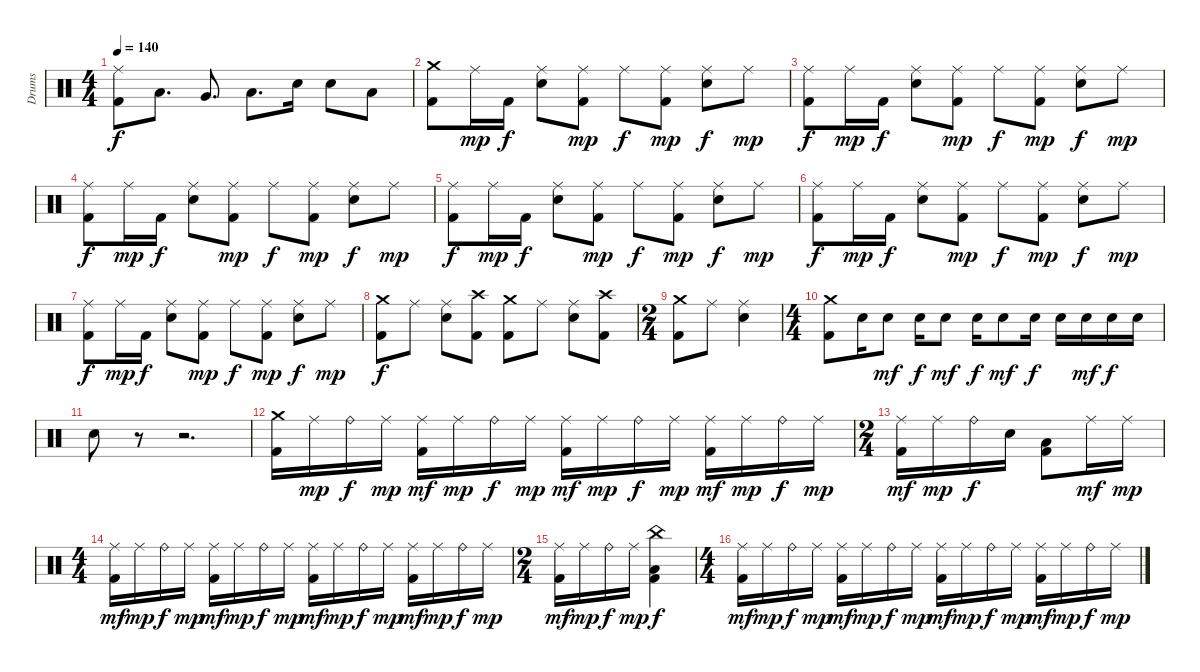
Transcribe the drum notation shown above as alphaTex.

\track ("Drums" "Drums") {instrument percussion}
\staff {score}
\articulation defaults
\ts (4 4)
\tempo 140
\clef neutral
\ks c
("Kick (hit) 2" "Ride (middle)").8{dy f} "Low Tom (hit)".8{d} "Very Low Tom (hit)".8{d} "Low Floor Tom (hit)".8{d} "Electric Snare (hit)".16 "Electric Snare (hit)".8 "Low Tom (hit)".8 |
("Kick (hit) 2" "Crash medium (hit)").8 "Ride (middle)".16{dy mp} "Kick (hit) 2".16{dy f} ("Ride (middle)" "Electric Snare (hit)").8 ("Kick (hit) 2" "Ride (middle)").8{dy mp} "Ride (middle)".8{dy f} ("Kick (hit) 2" "Ride (middle)").8{dy mp} ("Ride (middle)" "Electric Snare (hit)").8{dy f} "Ride (middle)".8{dy mp} |
("Kick (hit) 2" "Ride (middle)").8{dy f} "Ride (middle)".16{dy mp} "Kick (hit) 2".16{dy f} ("Ride (middle)" "Electric Snare (hit)").8 ("Kick (hit) 2" "Ride (middle)").8{dy mp} "Ride (middle)".8{dy f} ("Kick (hit) 2" "Ride (middle)").8{dy mp} ("Ride (middle)" "Electric Snare (hit)").8{dy f} "Ride (middle)".8{dy mp} |
("Kick (hit) 2" "Ride (middle)").8{dy f} "Ride (middle)".16{dy mp} "Kick (hit) 2".16{dy f} ("Ride (middle)" "Electric Snare (hit)").8 ("Kick (hit) 2" "Ride (middle)").8{dy mp} "Ride (middle)".8{dy f} ("Kick (hit) 2" "Ride (middle)").8{dy mp} ("Ride (middle)" "Electric Snare (hit)").8{dy f} "Ride (middle)".8{dy mp} |
("Kick (hit) 2" "Ride (middle)").8{dy f} "Ride (middle)".16{dy mp} "Kick (hit) 2".16{dy f} ("Ride (middle)" "Electric Snare (hit)").8 ("Kick (hit) 2" "Ride (middle)").8{dy mp} "Ride (middle)".8{dy f} ("Kick (hit) 2" "Ride (middle)").8{dy mp} ("Ride (middle)" "Electric Snare (hit)").8{dy f} "Ride (middle)".8{dy mp} |
("Kick (hit) 2" "Ride (middle)").8{dy f} "Ride (middle)".16{dy mp} "Kick (hit) 2".16{dy f} ("Ride (middle)" "Electric Snare (hit)").8 ("Kick (hit) 2" "Ride (middle)").8{dy mp} "Ride (middle)".8{dy f} ("Kick (hit) 2" "Ride (middle)").8{dy mp} ("Ride (middle)" "Electric Snare (hit)").8{dy f} "Ride (middle)".8{dy mp} |
("Kick (hit) 2" "Ride (middle)").8{dy f} "Ride (middle)".16{dy mp} "Kick (hit) 2".16{dy f} ("Ride (middle)" "Electric Snare (hit)").8 ("Kick (hit) 2" "Ride (middle)").8{dy mp} "Ride (middle)".8{dy f} ("Kick (hit) 2" "Ride (middle)").8{dy mp} ("Ride (middle)" "Electric Snare (hit)").8{dy f} "Ride (middle)".8{dy mp} |
("Kick (hit) 2" "Crash medium (hit)").8{dy f} "Ride (middle)".8 ("Ride (middle)" "Electric Snare (hit)").8 ("Kick (hit) 2" "Crash high (hit)").8 ("Kick (hit) 2" "Crash medium (hit)").8 "Ride (middle)".8 ("Ride (middle)" "Electric Snare (hit)").8 ("Kick (hit) 2" "Crash high (hit)").8 |
\ts (2 4)
("Kick (hit) 2" "Crash medium (hit)").8 "Ride (middle)".8 ("Ride (middle)" "Electric Snare (hit)").4 |
\ts (4 4)
("Kick (hit) 2" "Crash medium (hit)").8 "Electric Snare (hit)".16 "Electric Snare (hit)".8{dy mf} "Electric Snare (hit)".16{dy f} "Electric Snare (hit)".8{dy mf} "Electric Snare (hit)".16{dy f} "Electric Snare (hit)".8{dy mf} "Electric Snare (hit)".16{dy f} "Electric Snare (hit)".16 "Electric Snare (hit)".16{dy mf} "Electric Snare (hit)".16{dy f} "Electric Snare (hit)".16 |
"Electric Snare (hit)".8 r.8 r.2{d} |
("Kick (hit) 2" "Crash medium (hit)").16 "Ride (middle)".16{dy mp} "Ride (bell)".16{dy f} "Ride (middle)".16{dy mp} ("Kick (hit) 2" "Ride (middle)").16{dy mf} "Ride (middle)".16{dy mp} "Ride (bell)".16{dy f} "Ride (middle)".16{dy mp} ("Kick (hit) 2" "Ride (middle)").16{dy mf} "Ride (middle)".16{dy mp} "Ride (bell)".16{dy f} "Ride (middle)".16{dy mp} ("Kick (hit) 2" "Ride (middle)").16{dy mf} "Ride (middle)".16{dy mp} "Ride (bell)".16{dy f} "Ride (middle)".16{dy mp} |
\ts (2 4)
("Kick (hit) 2" "Ride (middle)").16{dy mf} "Ride (middle)".16{dy mp} "Ride (bell)".16{dy f} "Electric Snare (hit)".16 ("Kick (hit) 2" "Low Tom (hit)").8 "Ride (middle)".16{dy mf} "Ride (middle)".16{dy mp} |
\ts (4 4)
("Kick (hit) 2" "Ride (middle)").16{dy mf} "Ride (middle)".16{dy mp} "Ride (bell)".16{dy f} "Ride (middle)".16{dy mp} ("Kick (hit) 2" "Ride (middle)").16{dy mf} "Ride (middle)".16{dy mp} "Ride (bell)".16{dy f} "Ride (middle)".16{dy mp} ("Kick (hit) 2" "Ride (middle)").16{dy mf} "Ride (middle)".16{dy mp} "Ride (bell)".16{dy f} "Ride (middle)".16{dy mp} ("Kick (hit) 2" "Ride (middle)").16{dy mf} "Ride (middle)".16{dy mp} "Ride (bell)".16{dy f} "Ride (middle)".16{dy mp} |
\ts (2 4)
("Kick (hit) 2" "Ride (middle)").16{dy mf} "Ride (middle)".16{dy mp} "Ride (bell)".16{dy f} "Ride (middle)".16{dy mp} ("Kick (hit) 2" "China (hit)" "Low Tom (hit)").4{dy f} |
\ts (4 4)
("Kick (hit) 2" "Ride (middle)").16{dy mf} "Ride (middle)".16{dy mp} "Ride (bell)".16{dy f} "Ride (middle)".16{dy mp} ("Kick (hit) 2" "Ride (middle)").16{dy mf} "Ride (middle)".16{dy mp} "Ride (bell)".16{dy f} "Ride (middle)".16{dy mp} ("Kick (hit) 2" "Ride (middle)").16{dy mf} "Ride (middle)".16{dy mp} "Ride (bell)".16{dy f} "Ride (middle)".16{dy mp} ("Kick (hit) 2" "Ride (middle)").16{dy mf} "Ride (middle)".16{dy mp} "Ride (bell)".16{dy f} "Ride (middle)".16{dy mp}
